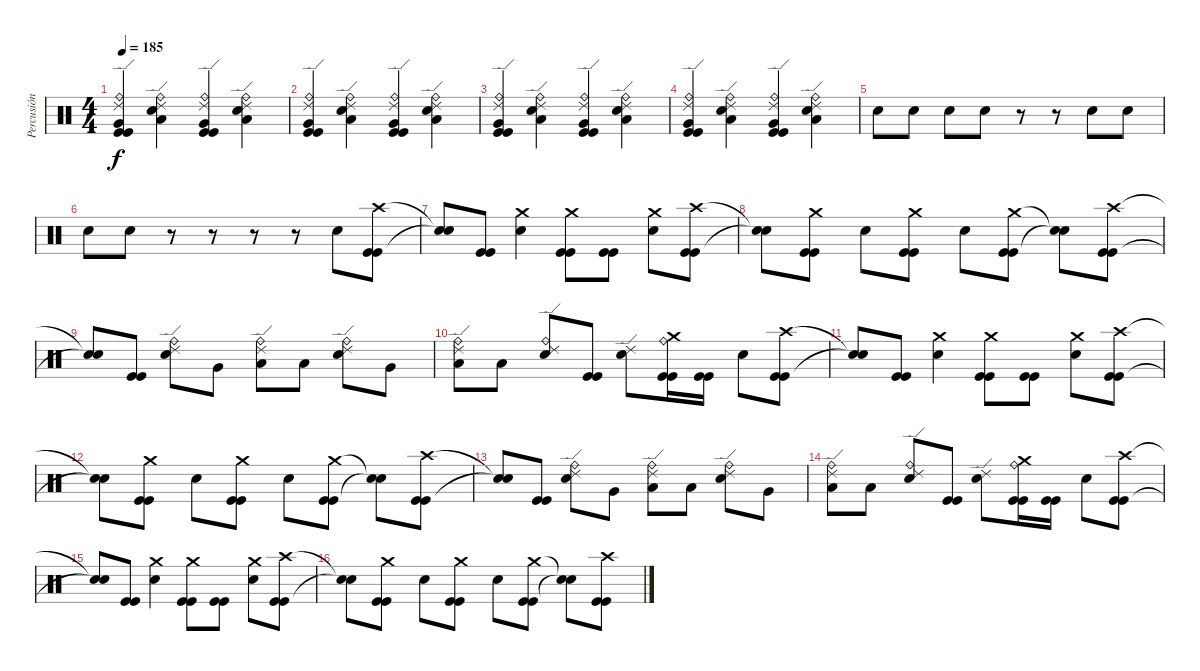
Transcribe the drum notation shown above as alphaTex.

\track ("Percusión" "Percusión") {instrument percussion}
\staff {score}
\articulation defaults
\ts (4 4)
\tempo 185
\clef neutral
\ks c
("Ride (edge) 2" "Ride (bell)" "Very Low Tom (hit)" "Kick (hit)" "Kick (hit)").4{dy f} ("Ride (edge) 2" "Ride (bell)" "Electric Snare (hit)" "Low Floor Tom (hit)").4 ("Ride (edge) 2" "Ride (bell)" "Very Low Tom (hit)" "Kick (hit)" "Kick (hit)").4 ("Ride (edge) 2" "Ride (bell)" "Electric Snare (hit)" "Low Floor Tom (hit)").4 |
("Ride (edge) 2" "Ride (bell)" "Very Low Tom (hit)" "Kick (hit)" "Kick (hit)").4 ("Ride (edge) 2" "Ride (bell)" "Electric Snare (hit)" "Low Floor Tom (hit)").4 ("Ride (edge) 2" "Ride (bell)" "Very Low Tom (hit)" "Kick (hit)" "Kick (hit)").4 ("Ride (edge) 2" "Ride (bell)" "Electric Snare (hit)" "Low Floor Tom (hit)").4 |
("Ride (edge) 2" "Ride (bell)" "Very Low Tom (hit)" "Kick (hit)" "Kick (hit)").4 ("Ride (edge) 2" "Ride (bell)" "Electric Snare (hit)" "Low Floor Tom (hit)").4 ("Ride (edge) 2" "Ride (bell)" "Very Low Tom (hit)" "Kick (hit)" "Kick (hit)").4 ("Ride (edge) 2" "Ride (bell)" "Electric Snare (hit)" "Low Floor Tom (hit)").4 |
("Ride (edge) 2" "Ride (bell)" "Very Low Tom (hit)" "Kick (hit)" "Kick (hit)").4 ("Ride (edge) 2" "Ride (bell)" "Electric Snare (hit)" "Low Floor Tom (hit)").4 ("Ride (edge) 2" "Ride (bell)" "Very Low Tom (hit)" "Kick (hit)" "Kick (hit)").4 ("Ride (edge) 2" "Ride (bell)" "Electric Snare (hit)" "Low Floor Tom (hit)").4 |
"Electric Snare (hit)".8 "Electric Snare (hit)".8 "Electric Snare (hit)".8 "Electric Snare (hit)".8 r.8 r.8 "Electric Snare (hit)".8 "Electric Snare (hit)".8 |
"Electric Snare (hit)".8 "Electric Snare (hit)".8 r.8 r.8 r.8 r.8 "Electric Snare (hit)".8 ("Crash high (hit)" "Kick (hit)" "Kick (hit)").8 |
("Snare (hit)"{t} "Snare (hit)"{t}).8 ("Kick (hit)" "Kick (hit)").8 ("Crash medium (hit)" "Electric Snare (hit)").4 ("Crash medium (hit)" "Kick (hit)" "Kick (hit)").8 ("Kick (hit)" "Kick (hit)").8 ("Crash medium (hit)" "Electric Snare (hit)").8 ("Crash high (hit)" "Kick (hit)" "Kick (hit)").8 |
("Snare (hit)"{t} "Snare (hit)"{t}).8 ("Crash medium (hit)" "Kick (hit)" "Kick (hit)").8 "Electric Snare (hit)".8 ("Crash medium (hit)" "Kick (hit)" "Kick (hit)").8 "Electric Snare (hit)".8 ("Crash medium (hit)" "Kick (hit)" "Kick (hit)").8 ("Snare (hit)"{t} "Snare (hit)"{t}).8 ("Crash high (hit)" "Kick (hit)" "Kick (hit)").8 |
("Snare (hit)"{t} "Snare (hit)"{t}).8 ("Kick (hit)" "Kick (hit)").8 ("Ride (edge) 2" "Ride (bell)" "Electric Snare (hit)").8 "Very Low Tom (hit)".8 ("Ride (edge) 2" "Ride (bell)" "Low Floor Tom (hit)").8 "Low Floor Tom (hit)".8 ("Ride (edge) 2" "Ride (bell)" "Electric Snare (hit)").8 "Very Low Tom (hit)".8 |
("Ride (edge) 2" "Ride (bell)" "Low Floor Tom (hit)").8 "Low Floor Tom (hit)".8 ("Ride (edge) 2" "Ride (bell)" "Electric Snare (hit)").8 ("Kick (hit)" "Kick (hit)").8 ("Ride (edge) 2" "Electric Snare (hit)").8 ("Crash medium (hit)" "Ride (bell)" "Kick (hit)" "Kick (hit)").16 ("Kick (hit)" "Kick (hit)").16 "Electric Snare (hit)".8 ("Crash high (hit)" "Kick (hit)" "Kick (hit)").8 |
("Snare (hit)"{t} "Snare (hit)"{t}).8 ("Kick (hit)" "Kick (hit)").8 ("Crash medium (hit)" "Electric Snare (hit)").4 ("Crash medium (hit)" "Kick (hit)" "Kick (hit)").8 ("Kick (hit)" "Kick (hit)").8 ("Crash medium (hit)" "Electric Snare (hit)").8 ("Crash high (hit)" "Kick (hit)" "Kick (hit)").8 |
("Snare (hit)"{t} "Snare (hit)"{t}).8 ("Crash medium (hit)" "Kick (hit)" "Kick (hit)").8 "Electric Snare (hit)".8 ("Crash medium (hit)" "Kick (hit)" "Kick (hit)").8 "Electric Snare (hit)".8 ("Crash medium (hit)" "Kick (hit)" "Kick (hit)").8 ("Snare (hit)"{t} "Snare (hit)"{t}).8 ("Crash high (hit)" "Kick (hit)" "Kick (hit)").8 |
("Snare (hit)"{t} "Snare (hit)"{t}).8 ("Kick (hit)" "Kick (hit)").8 ("Ride (edge) 2" "Ride (bell)" "Electric Snare (hit)").8 "Very Low Tom (hit)".8 ("Ride (edge) 2" "Ride (bell)" "Low Floor Tom (hit)").8 "Low Floor Tom (hit)".8 ("Ride (edge) 2" "Ride (bell)" "Electric Snare (hit)").8 "Very Low Tom (hit)".8 |
("Ride (edge) 2" "Ride (bell)" "Low Floor Tom (hit)").8 "Low Floor Tom (hit)".8 ("Ride (edge) 2" "Ride (bell)" "Electric Snare (hit)").8 ("Kick (hit)" "Kick (hit)").8 ("Ride (edge) 2" "Electric Snare (hit)").8 ("Crash medium (hit)" "Ride (bell)" "Kick (hit)" "Kick (hit)").16 ("Kick (hit)" "Kick (hit)").16 "Electric Snare (hit)".8 ("Crash high (hit)" "Kick (hit)" "Kick (hit)").8 |
("Snare (hit)"{t} "Snare (hit)"{t}).8 ("Kick (hit)" "Kick (hit)").8 ("Crash medium (hit)" "Electric Snare (hit)").4 ("Crash medium (hit)" "Kick (hit)" "Kick (hit)").8 ("Kick (hit)" "Kick (hit)").8 ("Crash medium (hit)" "Electric Snare (hit)").8 ("Crash high (hit)" "Kick (hit)" "Kick (hit)").8 |
("Snare (hit)"{t} "Snare (hit)"{t}).8 ("Crash medium (hit)" "Kick (hit)" "Kick (hit)").8 "Electric Snare (hit)".8 ("Crash medium (hit)" "Kick (hit)" "Kick (hit)").8 "Electric Snare (hit)".8 ("Crash medium (hit)" "Kick (hit)" "Kick (hit)").8 ("Snare (hit)"{t} "Snare (hit)"{t}).8 ("Crash high (hit)" "Kick (hit)" "Kick (hit)").8
